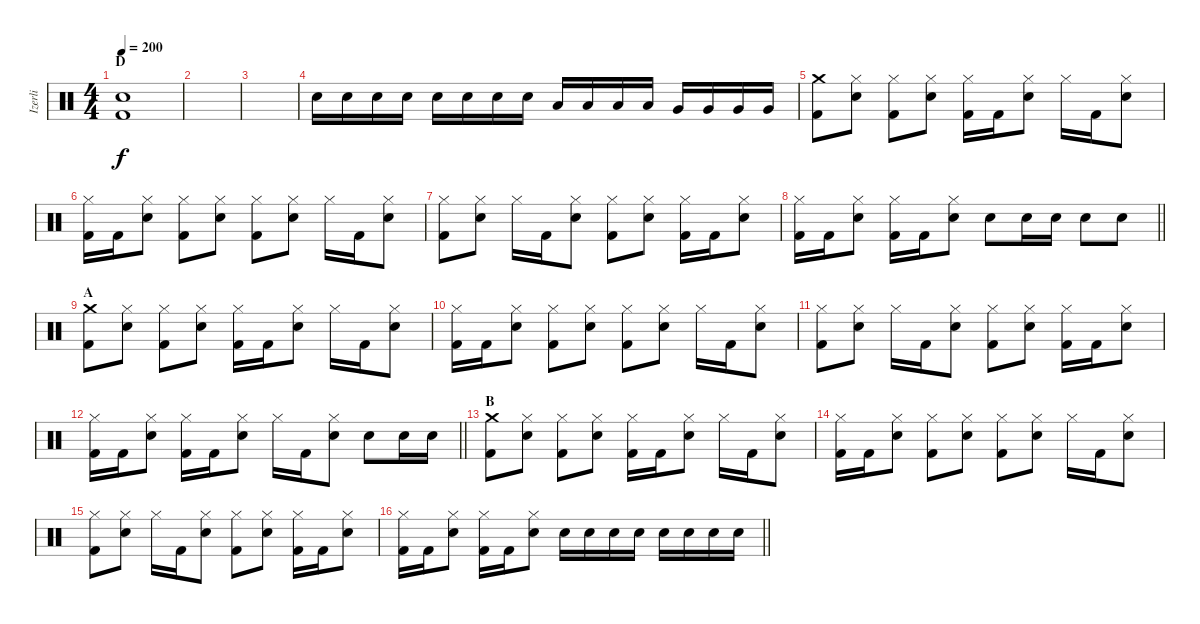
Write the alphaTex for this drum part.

\track ("Izerli" "Izerli") {instrument percussion}
\staff {score}
\articulation defaults
\ts (4 4)
\section ("" "D")
\tempo 200
\clef neutral
\ks c
("Electric Snare (hit)" "Kick (hit) 2").1{dy f} |
|
|
"Electric Snare (hit)".16 "Electric Snare (hit)".16 "Electric Snare (hit)".16 "Electric Snare (hit)".16 "Electric Snare (hit)".16 "Electric Snare (hit)".16 "Electric Snare (hit)".16 "Electric Snare (hit)".16 "Low Tom (hit)".16 "Low Tom (hit)".16 "Low Tom (hit)".16 "Low Tom (hit)".16 "Very Low Tom (hit)".16 "Very Low Tom (hit)".16 "Very Low Tom (hit)".16 "Very Low Tom (hit)".16 |
("Crash medium (hit)" "Kick (hit) 2").8 ("Hi-Hat (closed)" "Electric Snare (hit)").8 ("Hi-Hat (closed)" "Kick (hit) 2").8 ("Hi-Hat (closed)" "Electric Snare (hit)").8 ("Hi-Hat (closed)" "Kick (hit) 2").16 "Kick (hit) 2".16 ("Hi-Hat (closed)" "Electric Snare (hit)").8 "Hi-Hat (closed)".16 "Kick (hit) 2".16 ("Hi-Hat (closed)" "Electric Snare (hit)").8 |
("Hi-Hat (closed)" "Kick (hit) 2").16 "Kick (hit) 2".16 ("Hi-Hat (closed)" "Electric Snare (hit)").8 ("Hi-Hat (closed)" "Kick (hit) 2").8 ("Hi-Hat (closed)" "Electric Snare (hit)").8 ("Hi-Hat (closed)" "Kick (hit) 2").8 ("Hi-Hat (closed)" "Electric Snare (hit)").8 "Hi-Hat (closed)".16 "Kick (hit) 2".16 ("Hi-Hat (closed)" "Electric Snare (hit)").8 |
("Hi-Hat (closed)" "Kick (hit) 2").8 ("Hi-Hat (closed)" "Electric Snare (hit)").8 "Hi-Hat (closed)".16 "Kick (hit) 2".16 ("Hi-Hat (closed)" "Electric Snare (hit)").8 ("Hi-Hat (closed)" "Kick (hit) 2").8 ("Hi-Hat (closed)" "Electric Snare (hit)").8 ("Hi-Hat (closed)" "Kick (hit) 2").16 "Kick (hit) 2".16 ("Hi-Hat (closed)" "Electric Snare (hit)").8 |
\barLineRight lightlight
("Hi-Hat (closed)" "Kick (hit) 2").16 "Kick (hit) 2".16 ("Hi-Hat (closed)" "Electric Snare (hit)").8 ("Hi-Hat (closed)" "Kick (hit) 2").16 "Kick (hit) 2".16 ("Hi-Hat (closed)" "Electric Snare (hit)").8 "Electric Snare (hit)".8 "Electric Snare (hit)".16 "Electric Snare (hit)".16 "Electric Snare (hit)".8 "Electric Snare (hit)".8 |
\section ("" "A")
("Crash medium (hit)" "Kick (hit) 2").8 ("Hi-Hat (closed)" "Electric Snare (hit)").8 ("Hi-Hat (closed)" "Kick (hit) 2").8 ("Hi-Hat (closed)" "Electric Snare (hit)").8 ("Hi-Hat (closed)" "Kick (hit) 2").16 "Kick (hit) 2".16 ("Hi-Hat (closed)" "Electric Snare (hit)").8 "Hi-Hat (closed)".16 "Kick (hit) 2".16 ("Hi-Hat (closed)" "Electric Snare (hit)").8 |
("Hi-Hat (closed)" "Kick (hit) 2").16 "Kick (hit) 2".16 ("Hi-Hat (closed)" "Electric Snare (hit)").8 ("Hi-Hat (closed)" "Kick (hit) 2").8 ("Hi-Hat (closed)" "Electric Snare (hit)").8 ("Hi-Hat (closed)" "Kick (hit) 2").8 ("Hi-Hat (closed)" "Electric Snare (hit)").8 "Hi-Hat (closed)".16 "Kick (hit) 2".16 ("Hi-Hat (closed)" "Electric Snare (hit)").8 |
("Hi-Hat (closed)" "Kick (hit) 2").8 ("Hi-Hat (closed)" "Electric Snare (hit)").8 "Hi-Hat (closed)".16 "Kick (hit) 2".16 ("Hi-Hat (closed)" "Electric Snare (hit)").8 ("Hi-Hat (closed)" "Kick (hit) 2").8 ("Hi-Hat (closed)" "Electric Snare (hit)").8 ("Hi-Hat (closed)" "Kick (hit) 2").16 "Kick (hit) 2".16 ("Hi-Hat (closed)" "Electric Snare (hit)").8 |
\barLineRight lightlight
("Hi-Hat (closed)" "Kick (hit) 2").16 "Kick (hit) 2".16 ("Hi-Hat (closed)" "Electric Snare (hit)").8 ("Hi-Hat (closed)" "Kick (hit) 2").16 "Kick (hit) 2".16 ("Hi-Hat (closed)" "Electric Snare (hit)").8 "Hi-Hat (closed)".16 "Kick (hit) 2".16 ("Hi-Hat (closed)" "Electric Snare (hit)").8 "Electric Snare (hit)".8 "Electric Snare (hit)".16 "Electric Snare (hit)".16 |
\section ("" "B")
("Crash medium (hit)" "Kick (hit) 2").8 ("Hi-Hat (closed)" "Electric Snare (hit)").8 ("Hi-Hat (closed)" "Kick (hit) 2").8 ("Hi-Hat (closed)" "Electric Snare (hit)").8 ("Hi-Hat (closed)" "Kick (hit) 2").16 "Kick (hit) 2".16 ("Hi-Hat (closed)" "Electric Snare (hit)").8 "Hi-Hat (closed)".16 "Kick (hit) 2".16 ("Hi-Hat (closed)" "Electric Snare (hit)").8 |
("Hi-Hat (closed)" "Kick (hit) 2").16 "Kick (hit) 2".16 ("Hi-Hat (closed)" "Electric Snare (hit)").8 ("Hi-Hat (closed)" "Kick (hit) 2").8 ("Hi-Hat (closed)" "Electric Snare (hit)").8 ("Hi-Hat (closed)" "Kick (hit) 2").8 ("Hi-Hat (closed)" "Electric Snare (hit)").8 "Hi-Hat (closed)".16 "Kick (hit) 2".16 ("Hi-Hat (closed)" "Electric Snare (hit)").8 |
("Hi-Hat (closed)" "Kick (hit) 2").8 ("Hi-Hat (closed)" "Electric Snare (hit)").8 "Hi-Hat (closed)".16 "Kick (hit) 2".16 ("Hi-Hat (closed)" "Electric Snare (hit)").8 ("Hi-Hat (closed)" "Kick (hit) 2").8 ("Hi-Hat (closed)" "Electric Snare (hit)").8 ("Hi-Hat (closed)" "Kick (hit) 2").16 "Kick (hit) 2".16 ("Hi-Hat (closed)" "Electric Snare (hit)").8 |
\barLineRight lightlight
("Hi-Hat (closed)" "Kick (hit) 2").16 "Kick (hit) 2".16 ("Hi-Hat (closed)" "Electric Snare (hit)").8 ("Hi-Hat (closed)" "Kick (hit) 2").16 "Kick (hit) 2".16 ("Hi-Hat (closed)" "Electric Snare (hit)").8 "Electric Snare (hit)".16 "Electric Snare (hit)".16 "Electric Snare (hit)".16 "Electric Snare (hit)".16 "Electric Snare (hit)".16 "Electric Snare (hit)".16 "Electric Snare (hit)".16 "Electric Snare (hit)".16
